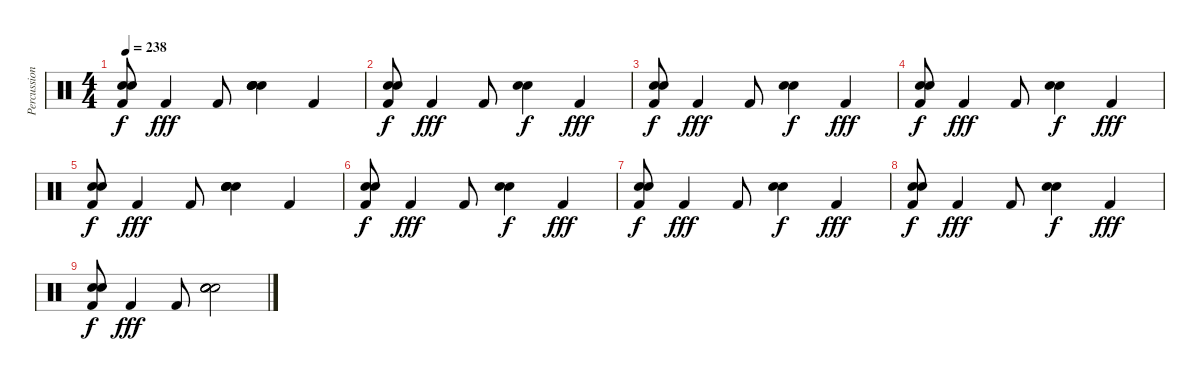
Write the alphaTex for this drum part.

\track ("Percussion" "Percussion") {instrument percussion}
\staff {score}
\articulation defaults
\ts (4 4)
\tempo 238
\clef neutral
\ks c
("Hand Clap (hit)" "Hand Clap (hit)" "Kick (hit) 2").8{bd 480 dy f} "Kick (hit) 2".4{dy fff} "Kick (hit) 2".8 ("Hand Clap (hit)" "Hand Clap (hit)" "Snare (hit) 2" "Snare (hit) 2").4{bd 120} "Kick (hit) 2".4 |
("Hand Clap (hit)" "Hand Clap (hit)" "Kick (hit) 2").8{bd 480 dy f} "Kick (hit) 2".4{dy fff} "Kick (hit) 2".8 ("Hand Clap (hit)" "Hand Clap (hit)").4{bd 480 dy f} "Kick (hit) 2".4{dy fff} |
("Hand Clap (hit)" "Hand Clap (hit)" "Kick (hit) 2").8{bd 480 dy f} "Kick (hit) 2".4{dy fff} "Kick (hit) 2".8 ("Hand Clap (hit)" "Hand Clap (hit)").4{bd 480 dy f} "Kick (hit) 2".4{dy fff} |
("Hand Clap (hit)" "Hand Clap (hit)" "Kick (hit) 2").8{bd 480 dy f} "Kick (hit) 2".4{dy fff} "Kick (hit) 2".8 ("Hand Clap (hit)" "Hand Clap (hit)").4{bd 480 dy f} "Kick (hit) 2".4{dy fff} |
("Hand Clap (hit)" "Hand Clap (hit)" "Kick (hit) 2").8{bd 480 dy f} "Kick (hit) 2".4{dy fff} "Kick (hit) 2".8 ("Hand Clap (hit)" "Hand Clap (hit)" "Snare (hit) 2" "Snare (hit) 2").4{bd 480} "Kick (hit) 2".4 |
("Hand Clap (hit)" "Hand Clap (hit)" "Kick (hit) 2").8{bd 480 dy f} "Kick (hit) 2".4{dy fff} "Kick (hit) 2".8 ("Hand Clap (hit)" "Hand Clap (hit)").4{bd 480 dy f} "Kick (hit) 2".4{dy fff} |
("Hand Clap (hit)" "Hand Clap (hit)" "Kick (hit) 2").8{bd 480 dy f} "Kick (hit) 2".4{dy fff} "Kick (hit) 2".8 ("Hand Clap (hit)" "Hand Clap (hit)").4{bd 480 dy f} "Kick (hit) 2".4{dy fff} |
("Hand Clap (hit)" "Hand Clap (hit)" "Kick (hit) 2").8{bd 480 dy f} "Kick (hit) 2".4{dy fff} "Kick (hit) 2".8 ("Hand Clap (hit)" "Hand Clap (hit)").4{bd 480 dy f} "Kick (hit) 2".4{dy fff} |
("Hand Clap (hit)" "Hand Clap (hit)" "Kick (hit) 2").8{bd 480 dy f} "Kick (hit) 2".4{dy fff} "Kick (hit) 2".8 ("Hand Clap (hit)" "Hand Clap (hit)" "Snare (hit) 2" "Snare (hit) 2").2{bd 120}
